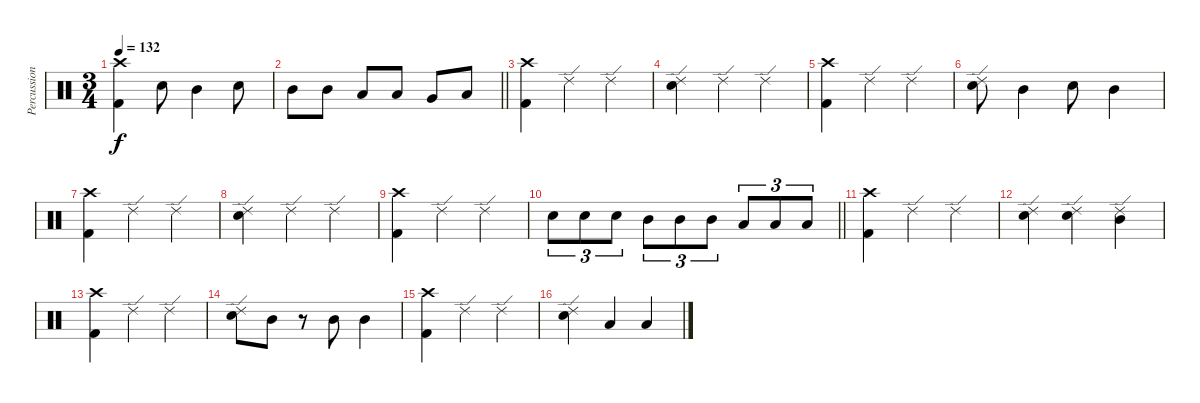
\track ("Percussion" "Percussion") {instrument percussion}
\staff {score}
\articulation defaults
\ts (3 4)
\tempo 132
\clef neutral
\ks c
("Crash high (hit)" "Kick (hit) 2").4{dy f} "Snare (hit) 2".8 "Mid Tom (hit)".4 "Snare (hit) 2".8 |
\barLineRight lightlight "Mid Tom (hit)".8 "Mid Tom (hit)".8 "Low Tom (hit)".8 "Low Tom (hit)".8 "Very Low Tom (hit)".8 "Low Floor Tom (hit)".8
|
("Crash high (hit)" "Kick (hit) 2").4 "Ride (edge) 2".4 "Ride (edge) 2".4 |
("Ride (edge) 2" "Snare (hit) 2").4 "Ride (edge) 2".4 "Ride (edge) 2".4 |
("Crash high (hit)" "Kick (hit) 2").4 "Ride (edge) 2".4 "Ride (edge) 2".4 |
("Ride (edge) 2" "Snare (hit) 2").8 "Mid Tom (hit)".4 "Snare (hit) 2".8 "Mid Tom (hit)".4 |
("Crash high (hit)" "Kick (hit) 2").4 "Ride (edge) 2".4 "Ride (edge) 2".4 |
("Ride (edge) 2" "Snare (hit) 2").4 "Ride (edge) 2".4 "Ride (edge) 2".4 |
("Crash high (hit)" "Kick (hit) 2").4 "Ride (edge) 2".4 "Ride (edge) 2".4 |
\barLineRight lightlight "Snare (hit) 2".8{tu (3 2)} "Snare (hit) 2".8{tu (3 2)} "Snare (hit) 2".8{tu (3 2)} "Mid Tom (hit)".8{tu (3 2)} "Mid Tom (hit)".8{tu (3 2)} "Mid Tom (hit)".8{tu (3 2)} "Low Tom (hit)".8{tu (3 2)} "Low Tom (hit)".8{tu (3 2)} "Low Tom (hit)".8{tu (3 2)}
|
("Crash high (hit)" "Kick (hit) 2").4 "Ride (edge) 2".4 "Ride (edge) 2".4 |
("Ride (edge) 2" "Snare (hit) 2").4 ("Ride (edge) 2" "Snare (hit) 2").4 ("Ride (edge) 2" "Mid Tom (hit)").4 |
("Crash high (hit)" "Kick (hit) 2").4 "Ride (edge) 2".4 "Ride (edge) 2".4 |
("Ride (edge) 2" "Snare (hit) 2").8 "Mid Tom (hit)".8 r.8 "Mid Tom (hit)".8 "Mid Tom (hit)".4 |
("Crash high (hit)" "Kick (hit) 2").4 "Ride (edge) 2".4 "Ride (edge) 2".4 |
("Ride (edge) 2" "Snare (hit) 2").4 "Low Tom (hit)".4 "Low Tom (hit)".4
